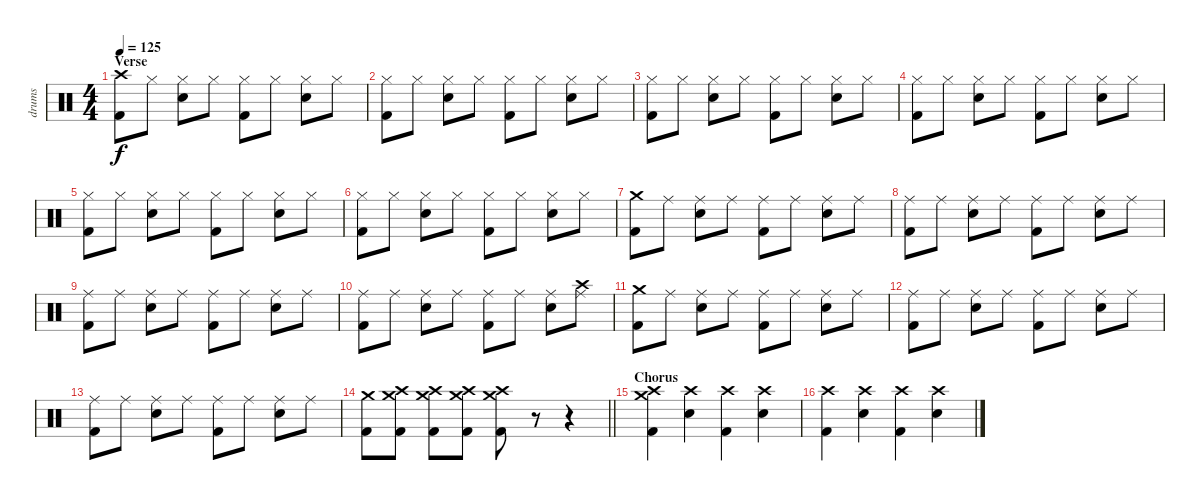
\track ("drums" "drums") {instrument percussion}
\staff {score}
\articulation defaults
\ts (4 4)
\section ("" "Verse")
\tempo 125
\clef neutral
\ks c
("Crash high (hit)" "Kick (hit) 2").8{dy f} "Hi-Hat (closed)".8 ("Hi-Hat (closed)" "Snare (hit) 2").8 "Hi-Hat (closed)".8 ("Hi-Hat (closed)" "Kick (hit) 2").8 "Hi-Hat (closed)".8 ("Hi-Hat (closed)" "Snare (hit) 2").8 "Hi-Hat (closed)".8 |
("Hi-Hat (closed)" "Kick (hit) 2").8 "Hi-Hat (closed)".8 ("Hi-Hat (closed)" "Snare (hit) 2").8 "Hi-Hat (closed)".8 ("Hi-Hat (closed)" "Kick (hit) 2").8 "Hi-Hat (closed)".8 ("Hi-Hat (closed)" "Snare (hit) 2").8 "Hi-Hat (closed)".8 |
("Hi-Hat (closed)" "Kick (hit) 2").8 "Hi-Hat (closed)".8 ("Hi-Hat (closed)" "Snare (hit) 2").8 "Hi-Hat (closed)".8 ("Hi-Hat (closed)" "Kick (hit) 2").8 "Hi-Hat (closed)".8 ("Hi-Hat (closed)" "Snare (hit) 2").8 "Hi-Hat (closed)".8 |
("Hi-Hat (closed)" "Kick (hit) 2").8 "Hi-Hat (closed)".8 ("Hi-Hat (closed)" "Snare (hit) 2").8 "Hi-Hat (closed)".8 ("Hi-Hat (closed)" "Kick (hit) 2").8 "Hi-Hat (closed)".8 ("Hi-Hat (closed)" "Snare (hit) 2").8 "Hi-Hat (closed)".8 |
("Hi-Hat (closed)" "Kick (hit) 2").8 "Hi-Hat (closed)".8 ("Hi-Hat (closed)" "Snare (hit) 2").8 "Hi-Hat (closed)".8 ("Hi-Hat (closed)" "Kick (hit) 2").8 "Hi-Hat (closed)".8 ("Hi-Hat (closed)" "Snare (hit) 2").8 "Hi-Hat (closed)".8 |
("Hi-Hat (closed)" "Kick (hit) 2").8 "Hi-Hat (closed)".8 ("Hi-Hat (closed)" "Snare (hit) 2").8 "Hi-Hat (closed)".8 ("Hi-Hat (closed)" "Kick (hit) 2").8 "Hi-Hat (closed)".8 ("Hi-Hat (closed)" "Snare (hit) 2").8 "Hi-Hat (closed)".8 |
("Crash medium (hit)" "Kick (hit) 2").8 "Ride (middle)".8 ("Ride (middle)" "Snare (hit) 2").8 "Ride (middle)".8 ("Ride (middle)" "Kick (hit) 2").8 "Ride (middle)".8 ("Ride (middle)" "Snare (hit) 2").8 "Ride (middle)".8 |
("Ride (middle)" "Kick (hit) 2").8 "Ride (middle)".8 ("Ride (middle)" "Snare (hit) 2").8 "Ride (middle)".8 ("Ride (middle)" "Kick (hit) 2").8 "Ride (middle)".8 ("Ride (middle)" "Snare (hit) 2").8 "Ride (middle)".8 |
("Ride (middle)" "Kick (hit) 2").8 "Ride (middle)".8 ("Ride (middle)" "Snare (hit) 2").8 "Ride (middle)".8 ("Ride (middle)" "Kick (hit) 2").8 "Ride (middle)".8 ("Ride (middle)" "Snare (hit) 2").8 "Ride (middle)".8 |
("Ride (middle)" "Kick (hit) 2").8 "Ride (middle)".8 ("Ride (middle)" "Snare (hit) 2").8 "Ride (middle)".8 ("Ride (middle)" "Kick (hit) 2").8 "Ride (middle)".8 ("Ride (middle)" "Snare (hit) 2").8 ("Crash high (hit)" "Ride (middle)").8 |
("Crash medium (hit)" "Kick (hit) 2").8 "Ride (middle)".8 ("Ride (middle)" "Snare (hit) 2").8 "Ride (middle)".8 ("Ride (middle)" "Kick (hit) 2").8 "Ride (middle)".8 ("Ride (middle)" "Snare (hit) 2").8 "Ride (middle)".8 |
("Ride (middle)" "Kick (hit) 2").8 "Ride (middle)".8 ("Ride (middle)" "Snare (hit) 2").8 "Ride (middle)".8 ("Ride (middle)" "Kick (hit) 2").8 "Ride (middle)".8 ("Ride (middle)" "Snare (hit) 2").8 "Ride (middle)".8 |
("Ride (middle)" "Kick (hit) 2").8 "Ride (middle)".8 ("Ride (middle)" "Snare (hit) 2").8 "Ride (middle)".8 ("Ride (middle)" "Kick (hit) 2").8 "Ride (middle)".8 ("Ride (middle)" "Snare (hit) 2").8 "Ride (middle)".8 |
\barLineRight lightlight
("Crash medium (hit)" "Kick (hit) 2").8 ("Crash medium (hit)" "Crash high (hit)" "Kick (hit) 2").8 ("Crash medium (hit)" "Crash high (hit)" "Kick (hit) 2").8 ("Crash medium (hit)" "Crash high (hit)" "Kick (hit) 2").8 ("Crash medium (hit)" "Crash high (hit)" "Kick (hit) 2").8 r.8 r.4 |
\section ("" "Chorus")
("Crash high (hit)" "Crash medium (hit)" "Kick (hit) 2").4 ("Crash high (hit)" "Snare (hit) 2").4 ("Crash high (hit)" "Kick (hit) 2").4 ("Crash high (hit)" "Snare (hit) 2").4 |
("Crash high (hit)" "Kick (hit) 2").4 ("Crash high (hit)" "Snare (hit) 2").4 ("Crash high (hit)" "Kick (hit) 2").4 ("Crash high (hit)" "Snare (hit) 2").4
